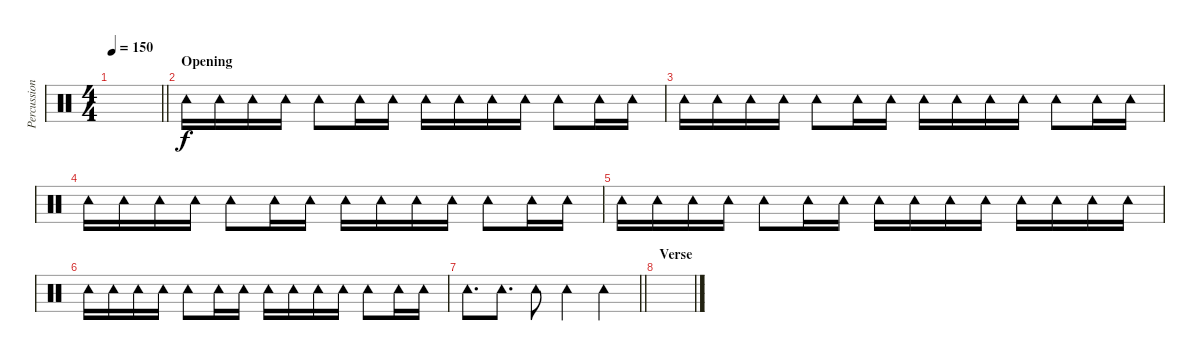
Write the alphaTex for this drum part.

\track ("Percussion" "Percussion") {instrument percussion}
\staff {score}
\articulation defaults
\ts (4 4)
\tempo 150
\clef neutral
\barLineRight lightlight
\ks c
|
\section ("" "Opening")
"Tambourine (hit)".16 "Tambourine (hit)".16 "Tambourine (hit)".16 "Tambourine (hit)".16 "Tambourine (hit)".8 "Tambourine (hit)".16 "Tambourine (hit)".16 "Tambourine (hit)".16 "Tambourine (hit)".16 "Tambourine (hit)".16 "Tambourine (hit)".16 "Tambourine (hit)".8 "Tambourine (hit)".16 "Tambourine (hit)".16 |
"Tambourine (hit)".16 "Tambourine (hit)".16 "Tambourine (hit)".16 "Tambourine (hit)".16 "Tambourine (hit)".8 "Tambourine (hit)".16 "Tambourine (hit)".16 "Tambourine (hit)".16 "Tambourine (hit)".16 "Tambourine (hit)".16 "Tambourine (hit)".16 "Tambourine (hit)".8 "Tambourine (hit)".16 "Tambourine (hit)".16 |
"Tambourine (hit)".16 "Tambourine (hit)".16 "Tambourine (hit)".16 "Tambourine (hit)".16 "Tambourine (hit)".8 "Tambourine (hit)".16 "Tambourine (hit)".16 "Tambourine (hit)".16 "Tambourine (hit)".16 "Tambourine (hit)".16 "Tambourine (hit)".16 "Tambourine (hit)".8 "Tambourine (hit)".16 "Tambourine (hit)".16 |
"Tambourine (hit)".16 "Tambourine (hit)".16 "Tambourine (hit)".16 "Tambourine (hit)".16 "Tambourine (hit)".8 "Tambourine (hit)".16 "Tambourine (hit)".16 "Tambourine (hit)".16 "Tambourine (hit)".16 "Tambourine (hit)".16 "Tambourine (hit)".16 "Tambourine (hit)".16 "Tambourine (hit)".16 "Tambourine (hit)".16 "Tambourine (hit)".16 |
"Tambourine (hit)".16 "Tambourine (hit)".16 "Tambourine (hit)".16 "Tambourine (hit)".16 "Tambourine (hit)".8 "Tambourine (hit)".16 "Tambourine (hit)".16 "Tambourine (hit)".16 "Tambourine (hit)".16 "Tambourine (hit)".16 "Tambourine (hit)".16 "Tambourine (hit)".8 "Tambourine (hit)".16 "Tambourine (hit)".16 |
\barLineRight lightlight "Tambourine (hit)".8{d} "Tambourine (hit)".8{d} "Tambourine (hit)".8 "Tambourine (hit)".4 "Tambourine (hit)".4
|
\section ("" "Verse")
